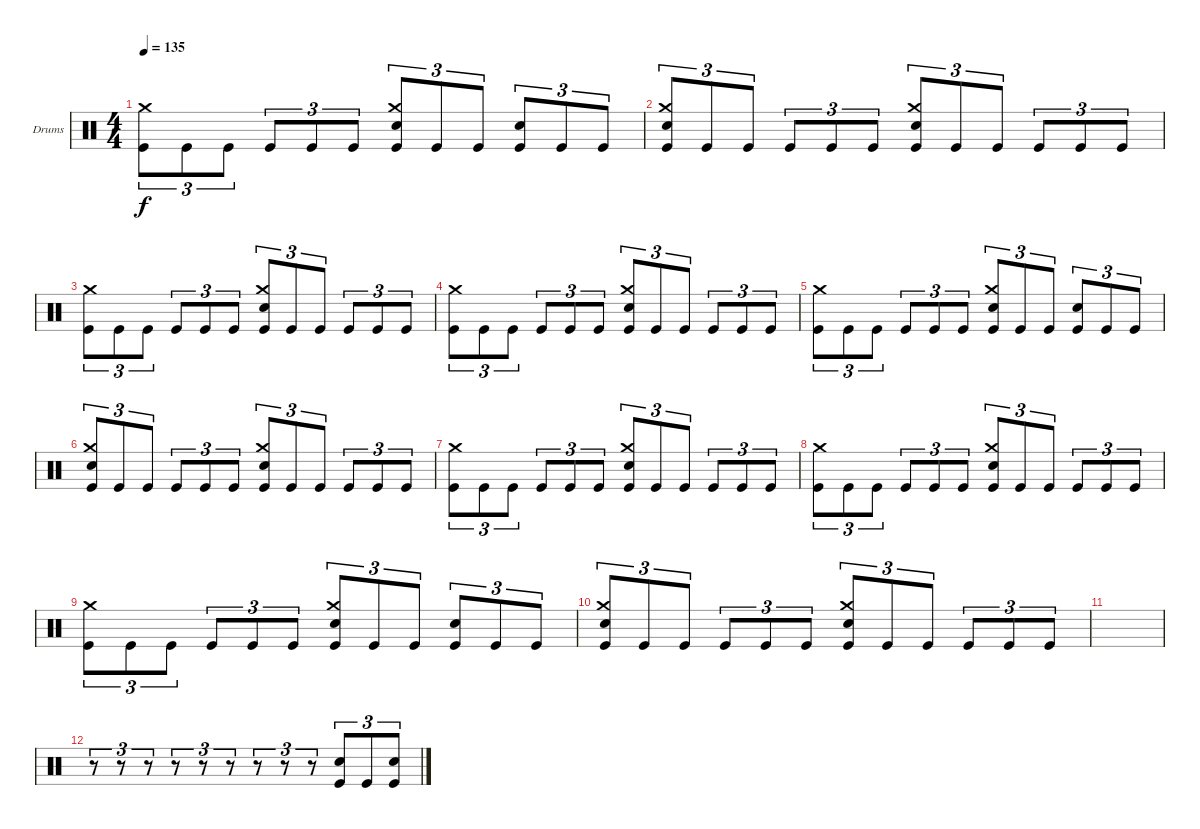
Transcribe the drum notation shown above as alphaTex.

\defaultSystemsLayout 4
\bracketExtendMode groupsimilarinstruments
\firstSystemTrackNameOrientation horizontal
\otherSystemsTrackNameOrientation horizontal
\track ("Drumkit" "Drums") {instrument percussion}
\staff {score}
\articulation defaults
\ts (4 4)
\tempo 135
\clef neutral
\ks c
("Kick (hit)" "Crash medium (hit)").8{tu (3 2) dy f} "Kick (hit)".8{tu (3 2)} "Kick (hit)".8{tu (3 2)} "Kick (hit)".8{tu (3 2)} "Kick (hit)".8{tu (3 2)} "Kick (hit)".8{tu (3 2)} ("Kick (hit)" "Crash medium (hit)" "Snare (hit) 2").8{tu (3 2)} "Kick (hit)".8{tu (3 2)} "Kick (hit)".8{tu (3 2)} ("Kick (hit)" "Snare (hit) 2").8{tu (3 2)} "Kick (hit)".8{tu (3 2)} "Kick (hit)".8{tu (3 2)} |
("Kick (hit)" "Crash medium (hit)" "Snare (hit) 2").8{tu (3 2)} "Kick (hit)".8{tu (3 2)} "Kick (hit)".8{tu (3 2)} "Kick (hit)".8{tu (3 2)} "Kick (hit)".8{tu (3 2)} "Kick (hit)".8{tu (3 2)} ("Kick (hit)" "Crash medium (hit)" "Snare (hit) 2").8{tu (3 2)} "Kick (hit)".8{tu (3 2)} "Kick (hit)".8{tu (3 2)} "Kick (hit)".8{tu (3 2)} "Kick (hit)".8{tu (3 2)} "Kick (hit)".8{tu (3 2)} |
("Kick (hit)" "Crash medium (hit)").8{tu (3 2)} "Kick (hit)".8{tu (3 2)} "Kick (hit)".8{tu (3 2)} "Kick (hit)".8{tu (3 2)} "Kick (hit)".8{tu (3 2)} "Kick (hit)".8{tu (3 2)} ("Kick (hit)" "Crash medium (hit)" "Snare (hit) 2").8{tu (3 2)} "Kick (hit)".8{tu (3 2)} "Kick (hit)".8{tu (3 2)} "Kick (hit)".8{tu (3 2)} "Kick (hit)".8{tu (3 2)} "Kick (hit)".8{tu (3 2)} |
("Kick (hit)" "Crash medium (hit)").8{tu (3 2)} "Kick (hit)".8{tu (3 2)} "Kick (hit)".8{tu (3 2)} "Kick (hit)".8{tu (3 2)} "Kick (hit)".8{tu (3 2)} "Kick (hit)".8{tu (3 2)} ("Kick (hit)" "Crash medium (hit)" "Snare (hit) 2").8{tu (3 2)} "Kick (hit)".8{tu (3 2)} "Kick (hit)".8{tu (3 2)} "Kick (hit)".8{tu (3 2)} "Kick (hit)".8{tu (3 2)} "Kick (hit)".8{tu (3 2)} |
("Kick (hit)" "Crash medium (hit)").8{tu (3 2)} "Kick (hit)".8{tu (3 2)} "Kick (hit)".8{tu (3 2)} "Kick (hit)".8{tu (3 2)} "Kick (hit)".8{tu (3 2)} "Kick (hit)".8{tu (3 2)} ("Kick (hit)" "Crash medium (hit)" "Snare (hit) 2").8{tu (3 2)} "Kick (hit)".8{tu (3 2)} "Kick (hit)".8{tu (3 2)} ("Kick (hit)" "Snare (hit) 2").8{tu (3 2)} "Kick (hit)".8{tu (3 2)} "Kick (hit)".8{tu (3 2)} |
("Kick (hit)" "Crash medium (hit)" "Snare (hit) 2").8{tu (3 2)} "Kick (hit)".8{tu (3 2)} "Kick (hit)".8{tu (3 2)} "Kick (hit)".8{tu (3 2)} "Kick (hit)".8{tu (3 2)} "Kick (hit)".8{tu (3 2)} ("Kick (hit)" "Crash medium (hit)" "Snare (hit) 2").8{tu (3 2)} "Kick (hit)".8{tu (3 2)} "Kick (hit)".8{tu (3 2)} "Kick (hit)".8{tu (3 2)} "Kick (hit)".8{tu (3 2)} "Kick (hit)".8{tu (3 2)} |
("Kick (hit)" "Crash medium (hit)").8{tu (3 2)} "Kick (hit)".8{tu (3 2)} "Kick (hit)".8{tu (3 2)} "Kick (hit)".8{tu (3 2)} "Kick (hit)".8{tu (3 2)} "Kick (hit)".8{tu (3 2)} ("Kick (hit)" "Crash medium (hit)" "Snare (hit) 2").8{tu (3 2)} "Kick (hit)".8{tu (3 2)} "Kick (hit)".8{tu (3 2)} "Kick (hit)".8{tu (3 2)} "Kick (hit)".8{tu (3 2)} "Kick (hit)".8{tu (3 2)} |
("Kick (hit)" "Crash medium (hit)").8{tu (3 2)} "Kick (hit)".8{tu (3 2)} "Kick (hit)".8{tu (3 2)} "Kick (hit)".8{tu (3 2)} "Kick (hit)".8{tu (3 2)} "Kick (hit)".8{tu (3 2)} ("Kick (hit)" "Crash medium (hit)" "Snare (hit) 2").8{tu (3 2)} "Kick (hit)".8{tu (3 2)} "Kick (hit)".8{tu (3 2)} "Kick (hit)".8{tu (3 2)} "Kick (hit)".8{tu (3 2)} "Kick (hit)".8{tu (3 2)} |
("Kick (hit)" "Crash medium (hit)").8{tu (3 2)} "Kick (hit)".8{tu (3 2)} "Kick (hit)".8{tu (3 2)} "Kick (hit)".8{tu (3 2)} "Kick (hit)".8{tu (3 2)} "Kick (hit)".8{tu (3 2)} ("Kick (hit)" "Crash medium (hit)" "Snare (hit) 2").8{tu (3 2)} "Kick (hit)".8{tu (3 2)} "Kick (hit)".8{tu (3 2)} ("Kick (hit)" "Snare (hit) 2").8{tu (3 2)} "Kick (hit)".8{tu (3 2)} "Kick (hit)".8{tu (3 2)} |
("Kick (hit)" "Crash medium (hit)" "Snare (hit) 2").8{tu (3 2)} "Kick (hit)".8{tu (3 2)} "Kick (hit)".8{tu (3 2)} "Kick (hit)".8{tu (3 2)} "Kick (hit)".8{tu (3 2)} "Kick (hit)".8{tu (3 2)} ("Kick (hit)" "Crash medium (hit)" "Snare (hit) 2").8{tu (3 2)} "Kick (hit)".8{tu (3 2)} "Kick (hit)".8{tu (3 2)} "Kick (hit)".8{tu (3 2)} "Kick (hit)".8{tu (3 2)} "Kick (hit)".8{tu (3 2)} |
|
r.8{tu (3 2)} r.8{tu (3 2)} r.8{tu (3 2)} r.8{tu (3 2)} r.8{tu (3 2)} r.8{tu (3 2)} r.8{tu (3 2)} r.8{tu (3 2)} r.8{tu (3 2)} ("Kick (hit)" "Snare (hit) 2").8{tu (3 2)} "Kick (hit)".8{tu (3 2)} ("Kick (hit)" "Snare (hit) 2").8{tu (3 2)}
